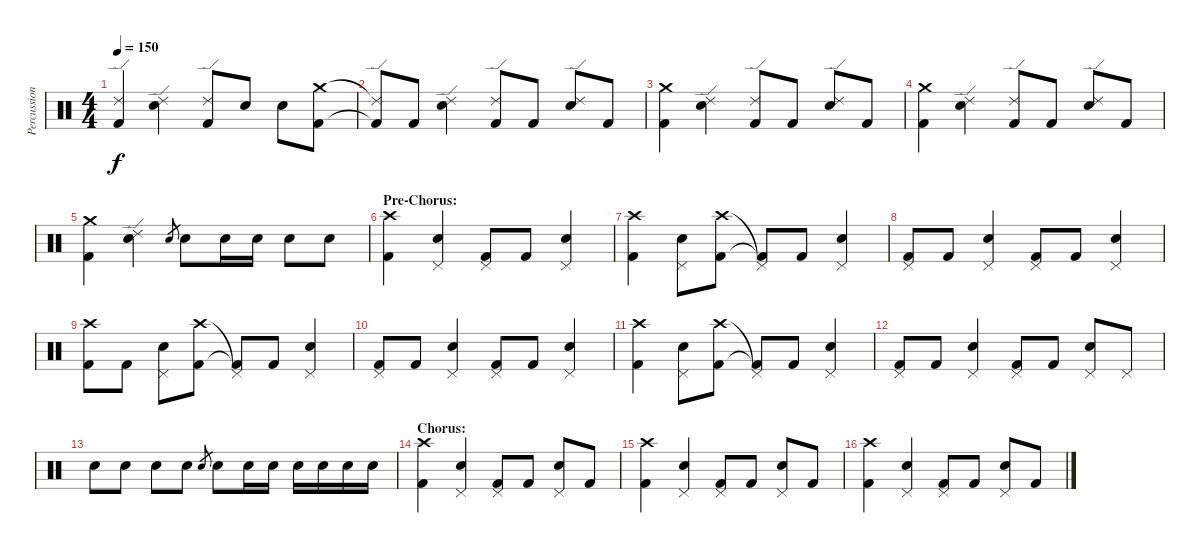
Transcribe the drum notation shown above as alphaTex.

\track ("Percussion" "Percussion") {instrument percussion}
\staff {score}
\articulation defaults
\ts (4 4)
\tempo 150
\clef neutral
\ks c
("Ride (edge) 2" "Kick (hit) 2").4{dy f} ("Ride (edge) 2" "Snare (hit) 2").4 ("Ride (edge) 2" "Kick (hit) 2").8 "Snare (hit) 2".8 "Snare (hit) 2".8 ("Crash medium (hit)" "Kick (hit) 2").8 |
("Ride (edge) 2"{t} "Kick (hit) 2"{t}).8 "Kick (hit) 2".8 ("Ride (edge) 2" "Snare (hit) 2").4 ("Ride (edge) 2" "Kick (hit) 2").8 "Kick (hit) 2".8 ("Ride (edge) 2" "Snare (hit) 2").8 "Kick (hit) 2".8 |
("Crash medium (hit)" "Kick (hit) 2").4 ("Ride (edge) 2" "Snare (hit) 2").4 ("Ride (edge) 2" "Kick (hit) 2").8 "Kick (hit) 2".8 ("Ride (edge) 2" "Snare (hit) 2").8 "Kick (hit) 2".8 |
("Crash medium (hit)" "Kick (hit) 2").4 ("Ride (edge) 2" "Snare (hit) 2").4 ("Ride (edge) 2" "Kick (hit) 2").8 "Kick (hit) 2".8 ("Ride (edge) 2" "Snare (hit) 2").8 "Kick (hit) 2".8 |
("Crash medium (hit)" "Kick (hit) 2").4 ("Ride (edge) 2" "Snare (hit) 2").4 "Snare (hit) 2".8{gr} "Snare (hit) 2".8 "Snare (hit) 2".16 "Snare (hit) 2".16 "Snare (hit) 2".8 "Snare (hit) 2".8 |
\section ("" "Pre-Chorus:")
("Crash high (hit)" "Kick (hit) 2").4 ("Pedal Hi-Hat (hit)" "Snare (hit) 2").4 ("Pedal Hi-Hat (hit)" "Kick (hit) 2").8 "Kick (hit) 2".8 ("Pedal Hi-Hat (hit)" "Snare (hit) 2").4 |
("Crash high (hit)" "Kick (hit) 2").4 ("Pedal Hi-Hat (hit)" "Snare (hit) 2").8 ("Crash high (hit)" "Kick (hit) 2").8 ("Pedal Hi-Hat (hit)"{t} "Kick (hit) 2"{t}).8 "Kick (hit) 2".8 ("Pedal Hi-Hat (hit)" "Snare (hit) 2").4 |
("Pedal Hi-Hat (hit)" "Kick (hit) 2").8 "Kick (hit) 2".8 ("Pedal Hi-Hat (hit)" "Snare (hit) 2").4 ("Pedal Hi-Hat (hit)" "Kick (hit) 2").8 "Kick (hit) 2".8 ("Pedal Hi-Hat (hit)" "Snare (hit) 2").4 |
("Crash high (hit)" "Kick (hit) 2").8 "Kick (hit) 2".8 ("Pedal Hi-Hat (hit)" "Snare (hit) 2").8 ("Crash high (hit)" "Kick (hit) 2").8 ("Pedal Hi-Hat (hit)"{t} "Kick (hit) 2"{t}).8 "Kick (hit) 2".8 ("Pedal Hi-Hat (hit)" "Snare (hit) 2").4 |
("Pedal Hi-Hat (hit)" "Kick (hit) 2").8 "Kick (hit) 2".8 ("Pedal Hi-Hat (hit)" "Snare (hit) 2").4 ("Pedal Hi-Hat (hit)" "Kick (hit) 2").8 "Kick (hit) 2".8 ("Pedal Hi-Hat (hit)" "Snare (hit) 2").4 |
("Crash high (hit)" "Kick (hit) 2").4 ("Pedal Hi-Hat (hit)" "Snare (hit) 2").8 ("Crash high (hit)" "Kick (hit) 2").8 ("Pedal Hi-Hat (hit)"{t} "Kick (hit) 2"{t}).8 "Kick (hit) 2".8 ("Pedal Hi-Hat (hit)" "Snare (hit) 2").4 |
("Pedal Hi-Hat (hit)" "Kick (hit) 2").8 "Kick (hit) 2".8 ("Pedal Hi-Hat (hit)" "Snare (hit) 2").4 ("Pedal Hi-Hat (hit)" "Kick (hit) 2").8 "Kick (hit) 2".8 ("Pedal Hi-Hat (hit)" "Snare (hit) 2").8 "Pedal Hi-Hat (hit)".8 |
"Snare (hit) 2".8 "Snare (hit) 2".8 "Snare (hit) 2".8 "Snare (hit) 2".8 "Snare (hit) 2".8{gr} "Snare (hit) 2".8 "Snare (hit) 2".16 "Snare (hit) 2".16 "Snare (hit) 2".16 "Snare (hit) 2".16 "Snare (hit) 2".16 "Snare (hit) 2".16 |
\section ("" "Chorus:")
("Crash high (hit)" "Kick (hit) 2").4 ("Pedal Hi-Hat (hit)" "Snare (hit) 2").4 ("Pedal Hi-Hat (hit)" "Kick (hit) 2").8 "Kick (hit) 2".8 ("Pedal Hi-Hat (hit)" "Snare (hit) 2").8 "Kick (hit) 2".8 |
("Crash high (hit)" "Kick (hit) 2").4 ("Pedal Hi-Hat (hit)" "Snare (hit) 2").4 ("Pedal Hi-Hat (hit)" "Kick (hit) 2").8 "Kick (hit) 2".8 ("Pedal Hi-Hat (hit)" "Snare (hit) 2").8 "Kick (hit) 2".8 |
("Crash high (hit)" "Kick (hit) 2").4 ("Pedal Hi-Hat (hit)" "Snare (hit) 2").4 ("Pedal Hi-Hat (hit)" "Kick (hit) 2").8 "Kick (hit) 2".8 ("Pedal Hi-Hat (hit)" "Snare (hit) 2").8 "Kick (hit) 2".8
